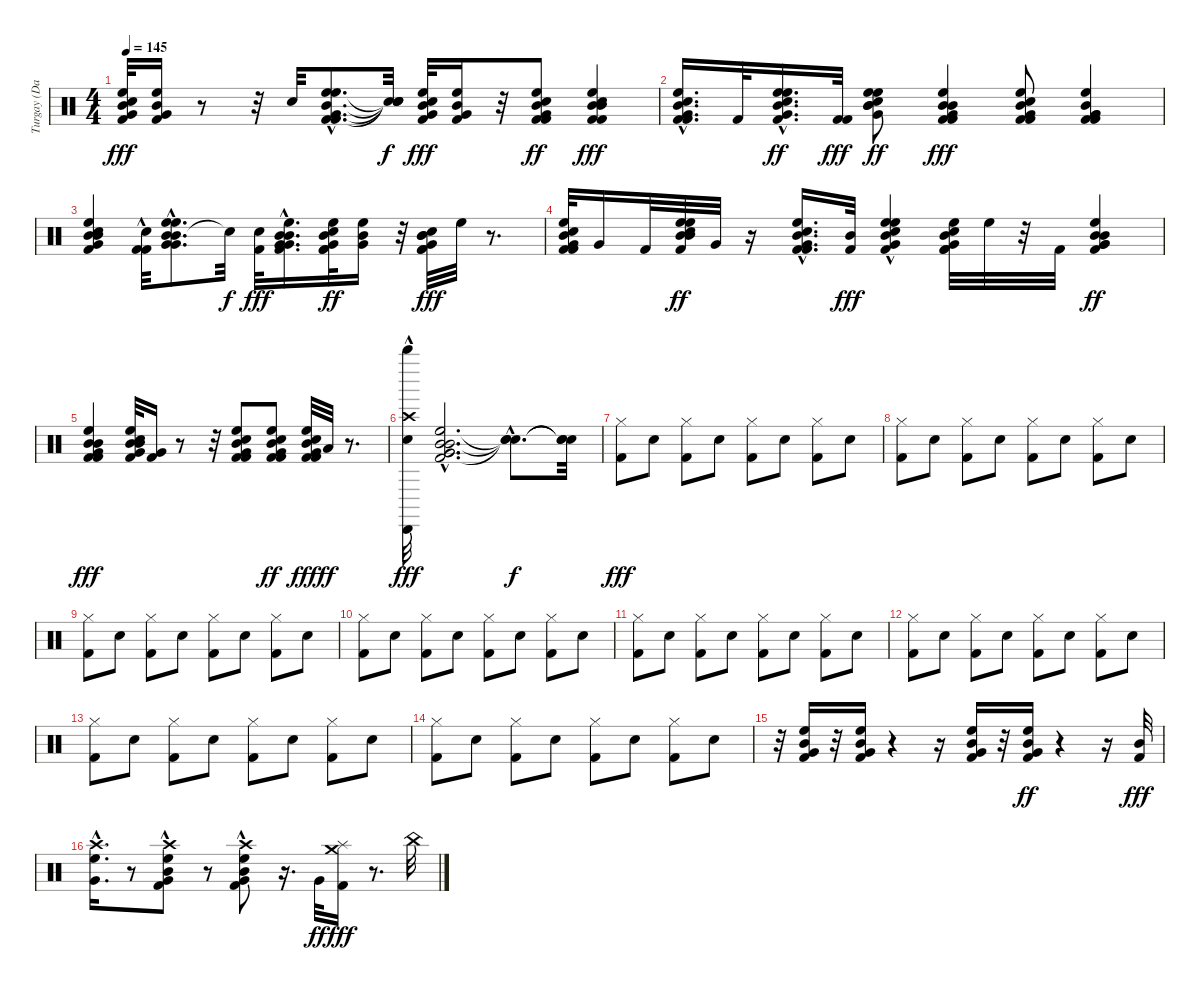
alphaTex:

\track ("Turgay (Davul)" "Turgay (Da") {instrument percussion}
\staff {score}
\articulation defaults
\ts (4 4)
\tempo 145
\clef neutral
\ks c
("Electric Snare (hit)" "Mid Tom (hit)" "Very Low Tom (hit)" "High Floor Tom (hit)" "Kick (hit) 2").32{dy fff} ("Kick (hit) 2" "Mid Tom (hit)" "High Floor Tom (hit)" "Very Low Tom (hit)").16 r.8 r.32 "Electric Snare (hit)".32 ("Kick (hit) 2"{hac} "Mid Tom (hit)"{hac} "High Floor Tom (hit)"{hac} "Very Low Tom (hit)"{hac} "Kick (hit) 2" "High Floor Tom (hit)").8{d} ("Snare (hit)"{t} "Snare (hit)"{t} "Snare (hit)"{t} "Snare (hit)"{t}).32{dy f} ("Electric Snare (hit)" "Mid Tom (hit)" "Kick (hit) 2" "High Floor Tom (hit)" "Very Low Tom (hit)").32{dy fff} ("Mid Tom (hit)" "Kick (hit) 2" "High Floor Tom (hit)" "Very Low Tom (hit)").16 r.32 ("Electric Snare (hit)" "Kick (hit) 2" "Kick (hit) 2" "Mid Tom (hit)" "High Floor Tom (hit)" "Very Low Tom (hit)").8{dy ff} ("Kick (hit) 2" "Electric Snare (hit)" "Kick (hit) 2" "Mid Tom (hit)" "High Floor Tom (hit)" "Mid Tom (hit)").4{dy fff} |
("Kick (hit) 2"{hac} "Electric Snare (hit)" "Kick (hit) 2" "Very Low Tom (hit)"{hac} "Mid Tom (hit)"{hac} "High Floor Tom (hit)"{hac}).16{d} "Kick (hit) 2".32 ("Kick (hit) 2" "High Floor Tom (hit)"{hac} "Mid Tom (hit)"{hac} "Electric Snare (hit)" "High Floor Tom (hit)" "Very Low Tom (hit)"{hac}).16{d dy ff} ("Kick (hit) 2" "Kick (hit) 2").32{dy fff} ("Mid Tom (hit)" "High Floor Tom (hit)" "Very Low Tom (hit)" "Mid Tom (hit)" "Electric Snare (hit)" "High Floor Tom (hit)").8{dy ff} ("Kick (hit) 2" "Kick (hit) 2" "Mid Tom (hit)" "High Floor Tom (hit)" "Mid Tom (hit)" "Very Low Tom (hit)").4{dy fff} ("Kick (hit) 2" "Kick (hit) 2" "Very Low Tom (hit)" "Mid Tom (hit)" "High Floor Tom (hit)" "Electric Snare (hit)").8 ("Kick (hit) 2" "Kick (hit) 2" "Mid Tom (hit)" "High Floor Tom (hit)" "Very Low Tom (hit)" "Very Low Tom (hit)").4 |
("Kick (hit) 2" "Mid Tom (hit)" "Very Low Tom (hit)" "High Floor Tom (hit)" "Electric Snare (hit)" "Mid Tom (hit)").4 ("Electric Snare (hit)" "Kick (hit) 2" "Kick (hit) 2"{hac}).32 ("Mid Tom (hit)" "Mid Tom (hit)" "High Floor Tom (hit)"{hac} "High Floor Tom (hit)" "Very Low Tom (hit)"{hac} "Very Low Tom (hit)"{hac}).8{d} "Snare (hit)"{t}.32{dy f} ("Electric Snare (hit)" "Kick (hit) 2").32{dy fff} ("Mid Tom (hit)" "Mid Tom (hit)" "Very Low Tom (hit)"{hac} "Very Low Tom (hit)" "Kick (hit) 2" "High Floor Tom (hit)").16{d} ("Kick (hit) 2" "Electric Snare (hit)" "Mid Tom (hit)" "Kick (hit) 2" "Very Low Tom (hit)" "High Floor Tom (hit)").32{dy ff} ("Mid Tom (hit)" "Very Low Tom (hit)" "High Floor Tom (hit)").16 r.32 ("Kick (hit) 2" "Mid Tom (hit)" "Very Low Tom (hit)" "Electric Snare (hit)" "Kick (hit) 2" "Mid Tom (hit)").32{dy fff} "High Floor Tom (hit)".32 r.8{d} |
("Kick (hit) 2" "Electric Snare (hit)" "Mid Tom (hit)" "High Floor Tom (hit)" "Very Low Tom (hit)" "Kick (hit) 2").32 "Very Low Tom (hit)".16 "Kick (hit) 2".32 ("Kick (hit) 2" "High Floor Tom (hit)" "Mid Tom (hit)" "Electric Snare (hit)" "Mid Tom (hit)" "High Floor Tom (hit)").32{dy ff} "Very Low Tom (hit)".32 r.16 ("Kick (hit) 2"{hac} "Mid Tom (hit)"{hac} "High Floor Tom (hit)"{hac} "Kick (hit) 2" "Very Low Tom (hit)"{hac} "Electric Snare (hit)").16{d} ("Kick (hit) 2" "Mid Tom (hit)").32{dy fff} ("Kick (hit) 2"{hac} "Very Low Tom (hit)" "High Floor Tom (hit)" "Mid Tom (hit)"{hac} "High Floor Tom (hit)"{hac} "Electric Snare (hit)").4 ("Kick (hit) 2" "Kick (hit) 2" "Mid Tom (hit)" "Very Low Tom (hit)" "High Floor Tom (hit)" "Electric Snare (hit)").32 "High Floor Tom (hit)".32 r.32 "Kick (hit) 2".32 ("Mid Tom (hit)" "Kick (hit) 2" "Very Low Tom (hit)" "Mid Tom (hit)" "High Floor Tom (hit)" "Very Low Tom (hit)").4{dy ff} |
("Kick (hit) 2" "Mid Tom (hit)" "Very Low Tom (hit)" "Kick (hit) 2" "High Floor Tom (hit)" "Mid Tom (hit)").4{dy fff} ("Electric Snare (hit)" "Kick (hit) 2" "Mid Tom (hit)" "Very Low Tom (hit)" "High Floor Tom (hit)" "Mid Tom (hit)").32 ("Very Low Tom (hit)" "Kick (hit) 2").16 r.8 r.32 ("Electric Snare (hit)" "Mid Tom (hit)" "Kick (hit) 2" "High Floor Tom (hit)" "Very Low Tom (hit)" "Kick (hit) 2").8 ("Kick (hit) 2" "Electric Snare (hit)" "Kick (hit) 2" "Mid Tom (hit)" "High Floor Tom (hit)" "Very Low Tom (hit)").8{dy ff} ("Electric Snare (hit)" "Mid Tom (hit)" "Kick (hit) 2" "Very Low Tom (hit)" "High Floor Tom (hit)" "Kick (hit) 2").32{dy fff} "Low Tom (hit)".32{dy ff} r.8{d} |
("Snare (hit) 2"{hac} "Crash high (hit)"{hac} "Cabasa (hit)"{hac} "Whistle high (hit)"{hac}).32{dy fff} ("Kick (hit) 2"{hac} "Mid Tom (hit)"{hac} "High Floor Tom (hit)"{hac} "Very Low Tom (hit)"{hac} "Mid Tom (hit)"{hac} "Very Low Tom (hit)"{hac}).2{d} ("Snare (hit)"{hac t} "Snare (hit)"{hac t} "Snare (hit)"{hac t}).8{d dy f} ("Snare (hit)"{t} "Snare (hit)"{t} "Snare (hit)"{t}).32 |
("Kick (hit) 2" "Hi-Hat (closed)").8{dy fff} "Electric Snare (hit)".8 ("Kick (hit) 2" "Hi-Hat (closed)").8 "Electric Snare (hit)".8 ("Kick (hit) 2" "Hi-Hat (closed)").8 "Electric Snare (hit)".8 ("Kick (hit) 2" "Hi-Hat (closed)").8 "Electric Snare (hit)".8 |
("Hi-Hat (closed)" "Kick (hit) 2").8 "Electric Snare (hit)".8 ("Hi-Hat (closed)" "Kick (hit) 2").8 "Electric Snare (hit)".8 ("Hi-Hat (closed)" "Kick (hit) 2").8 "Electric Snare (hit)".8 ("Hi-Hat (closed)" "Kick (hit) 2").8 "Electric Snare (hit)".8 |
("Hi-Hat (closed)" "Kick (hit) 2").8 "Electric Snare (hit)".8 ("Hi-Hat (closed)" "Kick (hit) 2").8 "Electric Snare (hit)".8 ("Hi-Hat (closed)" "Kick (hit) 2").8 "Electric Snare (hit)".8 ("Hi-Hat (closed)" "Kick (hit) 2").8 "Electric Snare (hit)".8 |
("Hi-Hat (closed)" "Kick (hit) 2").8 "Electric Snare (hit)".8 ("Hi-Hat (closed)" "Kick (hit) 2").8 "Electric Snare (hit)".8 ("Hi-Hat (closed)" "Kick (hit) 2").8 "Electric Snare (hit)".8 ("Hi-Hat (closed)" "Kick (hit) 2").8 "Electric Snare (hit)".8 |
("Hi-Hat (closed)" "Kick (hit) 2").8 "Electric Snare (hit)".8 ("Hi-Hat (closed)" "Kick (hit) 2").8 "Electric Snare (hit)".8 ("Hi-Hat (closed)" "Kick (hit) 2").8 "Electric Snare (hit)".8 ("Hi-Hat (closed)" "Kick (hit) 2").8 "Electric Snare (hit)".8 |
("Kick (hit) 2" "Hi-Hat (closed)").8 "Electric Snare (hit)".8 ("Kick (hit) 2" "Hi-Hat (closed)").8 "Electric Snare (hit)".8 ("Kick (hit) 2" "Hi-Hat (closed)").8 "Electric Snare (hit)".8 ("Kick (hit) 2" "Hi-Hat (closed)").8 "Electric Snare (hit)".8 |
("Kick (hit) 2" "Hi-Hat (closed)").8 "Electric Snare (hit)".8 ("Kick (hit) 2" "Hi-Hat (closed)").8 "Electric Snare (hit)".8 ("Kick (hit) 2" "Hi-Hat (closed)").8 "Electric Snare (hit)".8 ("Kick (hit) 2" "Hi-Hat (closed)").8 "Electric Snare (hit)".8 |
("Hi-Hat (closed)" "Kick (hit) 2").8 "Electric Snare (hit)".8 ("Hi-Hat (closed)" "Kick (hit) 2").8 "Electric Snare (hit)".8 ("Hi-Hat (closed)" "Kick (hit) 2").8 "Electric Snare (hit)".8 ("Hi-Hat (closed)" "Kick (hit) 2").8 "Electric Snare (hit)".8 |
r.32 ("Kick (hit) 2" "Mid Tom (hit)" "High Floor Tom (hit)" "Very Low Tom (hit)").16 r.32 ("Kick (hit) 2" "Very Low Tom (hit)" "Mid Tom (hit)" "High Floor Tom (hit)").16 r.4 r.16 ("Kick (hit) 2" "Mid Tom (hit)" "High Floor Tom (hit)" "Very Low Tom (hit)").16 r.32 ("Kick (hit) 2" "High Floor Tom (hit)" "Mid Tom (hit)" "Very Low Tom (hit)").16{dy ff} r.4 r.16 ("Kick (hit) 2" "Mid Tom (hit)").32{dy fff} |
("High Floor Tom (hit)"{hac} "Very Low Tom (hit)"{hac} "Crash high (hit)"{hac}).16{d} r.8 ("Very Low Tom (hit)"{hac} "Mid Tom (hit)" "High Floor Tom (hit)"{hac} "Crash high (hit)"{hac} "Kick (hit) 2").8 r.8 ("Very Low Tom (hit)" "Mid Tom (hit)" "Crash high (hit)"{hac} "High Floor Tom (hit)" "Kick (hit) 2").8 r.16{d} "Very Low Tom (hit)".32{dy ff} ("Crash medium (hit)" "Kick (hit) 2" "Splash (hit)").16{dy fff} r.8{d} "China (hit)".32
